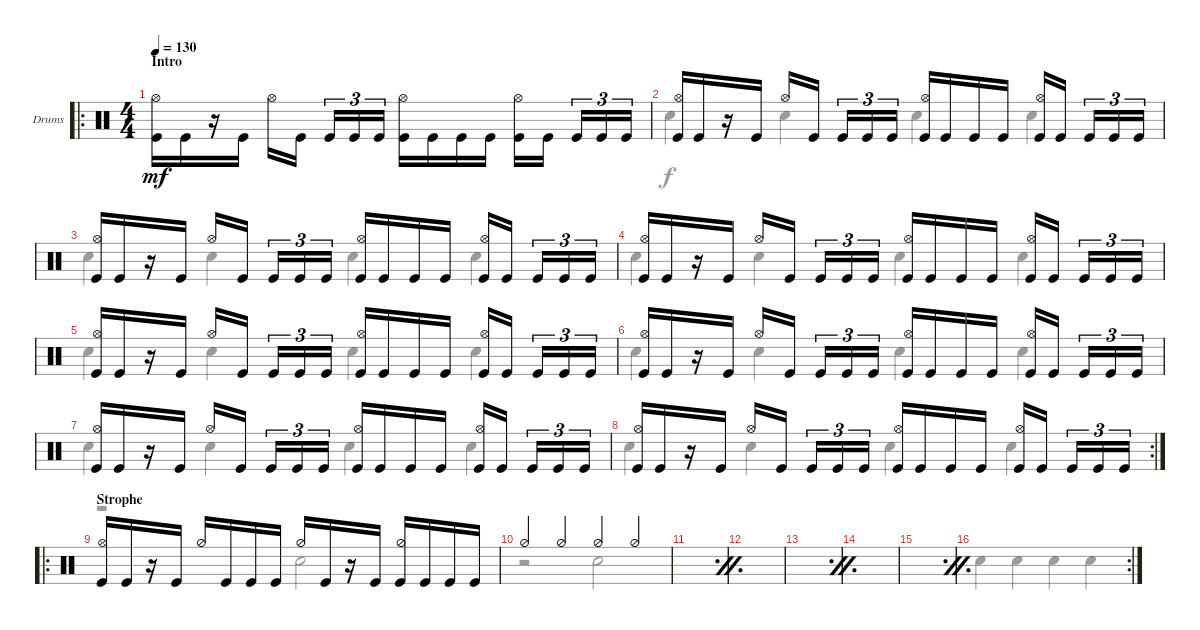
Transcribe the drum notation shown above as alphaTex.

\bracketExtendMode groupsimilarinstruments
\firstSystemTrackNameOrientation horizontal
\otherSystemsTrackNameOrientation horizontal
\track ("Drumkit" "Drums") {instrument percussion}
\staff {score}
\articulation defaults
\voice
\ro
\ts (4 4)
\beaming (8 2 2 2 2)
\section ("" "Intro")
\tempo 130
\clef neutral
\ks c
("Kick (hit)" "Hi-Hat (open)").16{dy mf} "Kick (hit)".16 r.16 "Kick (hit)".16 "Hi-Hat (open)".16 "Kick (hit)".16 "Kick (hit)".16{tu (3 2)} "Kick (hit)".16{tu (3 2)} "Kick (hit)".16{tu (3 2)} ("Kick (hit)" "Hi-Hat (open)").16 "Kick (hit)".16 "Kick (hit)".16 "Kick (hit)".16 ("Kick (hit)" "Hi-Hat (open)").16 "Kick (hit)".16 "Kick (hit)".16{tu (3 2)} "Kick (hit)".16{tu (3 2)} "Kick (hit)".16{tu (3 2)} |
("Kick (hit)" "Hi-Hat (open)").16 "Kick (hit)".16 r.16 "Kick (hit)".16 "Hi-Hat (open)".16 "Kick (hit)".16 "Kick (hit)".16{tu (3 2)} "Kick (hit)".16{tu (3 2)} "Kick (hit)".16{tu (3 2)} ("Kick (hit)" "Hi-Hat (open)").16 "Kick (hit)".16 "Kick (hit)".16 "Kick (hit)".16 ("Kick (hit)" "Hi-Hat (open)").16 "Kick (hit)".16 "Kick (hit)".16{tu (3 2)} "Kick (hit)".16{tu (3 2)} "Kick (hit)".16{tu (3 2)} |
("Kick (hit)" "Hi-Hat (open)").16 "Kick (hit)".16 r.16 "Kick (hit)".16 "Hi-Hat (open)".16 "Kick (hit)".16 "Kick (hit)".16{tu (3 2)} "Kick (hit)".16{tu (3 2)} "Kick (hit)".16{tu (3 2)} ("Kick (hit)" "Hi-Hat (open)").16 "Kick (hit)".16 "Kick (hit)".16 "Kick (hit)".16 ("Kick (hit)" "Hi-Hat (open)").16 "Kick (hit)".16 "Kick (hit)".16{tu (3 2)} "Kick (hit)".16{tu (3 2)} "Kick (hit)".16{tu (3 2)} |
("Kick (hit)" "Hi-Hat (open)").16 "Kick (hit)".16 r.16 "Kick (hit)".16 "Hi-Hat (open)".16 "Kick (hit)".16 "Kick (hit)".16{tu (3 2)} "Kick (hit)".16{tu (3 2)} "Kick (hit)".16{tu (3 2)} ("Kick (hit)" "Hi-Hat (open)").16 "Kick (hit)".16 "Kick (hit)".16 "Kick (hit)".16 ("Kick (hit)" "Hi-Hat (open)").16 "Kick (hit)".16 "Kick (hit)".16{tu (3 2)} "Kick (hit)".16{tu (3 2)} "Kick (hit)".16{tu (3 2)} |
("Kick (hit)" "Hi-Hat (open)").16 "Kick (hit)".16 r.16 "Kick (hit)".16 "Hi-Hat (open)".16 "Kick (hit)".16 "Kick (hit)".16{tu (3 2)} "Kick (hit)".16{tu (3 2)} "Kick (hit)".16{tu (3 2)} ("Kick (hit)" "Hi-Hat (open)").16 "Kick (hit)".16 "Kick (hit)".16 "Kick (hit)".16 ("Kick (hit)" "Hi-Hat (open)").16 "Kick (hit)".16 "Kick (hit)".16{tu (3 2)} "Kick (hit)".16{tu (3 2)} "Kick (hit)".16{tu (3 2)} |
("Kick (hit)" "Hi-Hat (open)").16 "Kick (hit)".16 r.16 "Kick (hit)".16 "Hi-Hat (open)".16 "Kick (hit)".16 "Kick (hit)".16{tu (3 2)} "Kick (hit)".16{tu (3 2)} "Kick (hit)".16{tu (3 2)} ("Kick (hit)" "Hi-Hat (open)").16 "Kick (hit)".16 "Kick (hit)".16 "Kick (hit)".16 ("Kick (hit)" "Hi-Hat (open)").16 "Kick (hit)".16 "Kick (hit)".16{tu (3 2)} "Kick (hit)".16{tu (3 2)} "Kick (hit)".16{tu (3 2)} |
("Kick (hit)" "Hi-Hat (open)").16 "Kick (hit)".16 r.16 "Kick (hit)".16 "Hi-Hat (open)".16 "Kick (hit)".16 "Kick (hit)".16{tu (3 2)} "Kick (hit)".16{tu (3 2)} "Kick (hit)".16{tu (3 2)} ("Kick (hit)" "Hi-Hat (open)").16 "Kick (hit)".16 "Kick (hit)".16 "Kick (hit)".16 ("Kick (hit)" "Hi-Hat (open)").16 "Kick (hit)".16 "Kick (hit)".16{tu (3 2)} "Kick (hit)".16{tu (3 2)} "Kick (hit)".16{tu (3 2)} |
\rc 2
("Kick (hit)" "Hi-Hat (open)").16 "Kick (hit)".16 r.16 "Kick (hit)".16 "Hi-Hat (open)".16 "Kick (hit)".16 "Kick (hit)".16{tu (3 2)} "Kick (hit)".16{tu (3 2)} "Kick (hit)".16{tu (3 2)} ("Kick (hit)" "Hi-Hat (open)").16 "Kick (hit)".16 "Kick (hit)".16 "Kick (hit)".16 ("Kick (hit)" "Hi-Hat (open)").16 "Kick (hit)".16 "Kick (hit)".16{tu (3 2)} "Kick (hit)".16{tu (3 2)} "Kick (hit)".16{tu (3 2)} |
\ro
\section ("" "Strophe")
("Kick (hit)" "Hi-Hat (open)").16 "Kick (hit)".16 r.16 "Kick (hit)".16 "Hi-Hat (half)".16 "Kick (hit)".16 "Kick (hit)".16 "Kick (hit)".16 "Hi-Hat (half)".16 "Kick (hit)".16 r.16 "Kick (hit)".16 ("Kick (hit)" "Hi-Hat (half)").16 "Kick (hit)".16 "Kick (hit)".16 "Kick (hit)".16 |
"Hi-Hat (half)".4 "Hi-Hat (half)".4 "Hi-Hat (half)".4 "Hi-Hat (half)".4 |
\simile firstofdouble
|
\simile secondofdouble
|
\simile firstofdouble
|
\simile secondofdouble
|
\simile firstofdouble
|
\rc 2
\simile secondofdouble
\voice
\clef neutral
\ottava regular
\simile none
\ks c "Snare (hit) 2".4{dy f} "Snare (hit) 2".4 "Snare (hit) 2".4 "Snare (hit) 2".4
|
"Snare (hit) 2".4 "Snare (hit) 2".4 "Snare (hit) 2".4 "Snare (hit) 2".4 |
"Snare (hit) 2".4 "Snare (hit) 2".4 "Snare (hit) 2".4 "Snare (hit) 2".4 |
"Snare (hit) 2".4 "Snare (hit) 2".4 "Snare (hit) 2".4 "Snare (hit) 2".4 |
"Snare (hit) 2".4 "Snare (hit) 2".4 "Snare (hit) 2".4 "Snare (hit) 2".4 |
"Snare (hit) 2".4 "Snare (hit) 2".4 "Snare (hit) 2".4 "Snare (hit) 2".4 |
"Snare (hit) 2".4 "Snare (hit) 2".4 "Snare (hit) 2".4 "Snare (hit) 2".4 |
"Snare (hit) 2".4 "Snare (hit) 2".4 "Snare (hit) 2".4 "Snare (hit) 2".4 |
r.2 "Snare (hit) 2".2 |
r.2 "Snare (hit) 2".2 |
\simile firstofdouble
|
\simile secondofdouble
|
\simile firstofdouble
|
\simile secondofdouble
|
\simile firstofdouble
|
\simile secondofdouble
